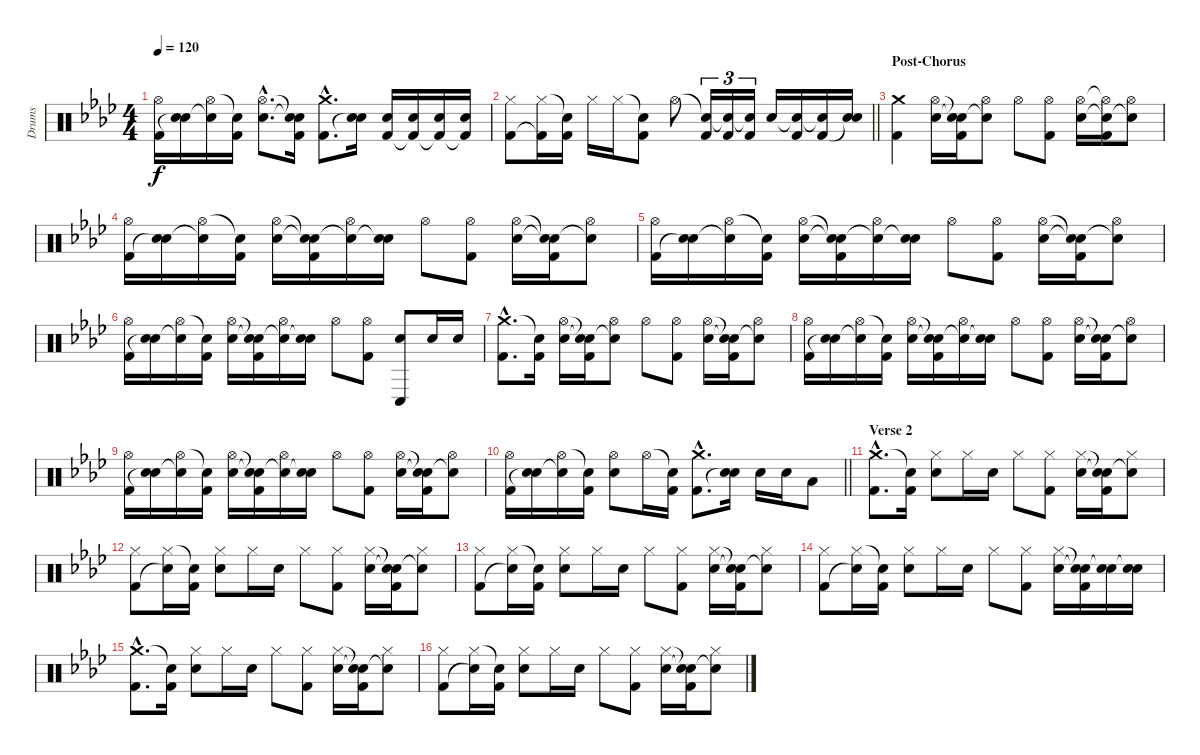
\track ("Drums" "Drums") {instrument percussion}
\staff {score}
\articulation defaults
\ts (4 4)
\tempo 120
\clef neutral
\ks fminor
("Hi-Hat (open)" "Kick (hit) 2").16{dy f} ("Electric Snare (hit)" "Snare (hit)"{t}).16 ("Hi-Hat (open)" "Snare (hit)"{t}).16 ("Snare (hit)"{t} "Kick (hit) 2").16 ("Hi-Hat (open)"{hac} "Electric Snare (hit)"{hac}).8{d} ("Snare (hit)"{t} "Snare (hit)"{t} "Kick (hit) 2").16 ("Crash medium (hit)"{hac} "Kick (hit) 2"{hac}).8{d} ("Electric Snare (hit)" "Snare (hit)"{t}).16 ("Electric Snare (hit)" "Kick (hit) 2").16 ("Electric Snare (hit)" "Kick (hit) 2"{t}).16 ("Electric Snare (hit)" "Kick (hit) 2"{t}).16 ("Electric Snare (hit)" "Kick (hit) 2"{t}).16 |
\barLineRight lightlight
("Hi-Hat (closed)" "Kick (hit) 2").8 ("Hi-Hat (closed)" "Kick (hit) 2"{t}).16 ("Snare (hit)"{t} "Kick (hit) 2").16 "Hi-Hat (closed)".16 "Hi-Hat (closed)".16 ("Snare (hit)"{t} "Kick (hit) 2").8 "Hi-Hat (open)".8 ("Snare (hit)"{t} "Kick (hit) 2").16{tu (3 2)} ("Snare (hit)"{t} "Kick (hit) 2").16{tu (3 2)} ("Snare (hit)"{t} "Kick (hit) 2").16{tu (3 2)} "Electric Snare (hit)".16 ("Snare (hit)"{t} "Kick (hit) 2").16 ("Snare (hit)"{t} "Kick (hit) 2").16 ("Electric Snare (hit)" "Snare (hit)"{t}).16 |
\section ("" "Post-Chorus")
("Crash medium (hit)" "Kick (hit) 2").4 ("Hi-Hat (open)" "Electric Snare (hit)").16 ("Snare (hit)"{t} "Snare (hit)"{t} "Kick (hit) 2").16 ("Hi-Hat (open)" "Snare (hit)"{t}).8 "Hi-Hat (open)".8 ("Hi-Hat (open)" "Kick (hit) 2").8 ("Hi-Hat (open)" "Electric Snare (hit)").16 ("Hi-Hat (open)"{t} "Snare (hit)"{t} "Kick (hit) 2").16 ("Hi-Hat (open)" "Snare (hit)"{t}).8 |
("Hi-Hat (open)" "Kick (hit) 2").16 ("Electric Snare (hit)" "Snare (hit)"{t}).16 ("Hi-Hat (open)" "Snare (hit)"{t}).16 ("Snare (hit)"{t} "Kick (hit) 2").16 ("Hi-Hat (open)" "Electric Snare (hit)").16 ("Snare (hit)"{t} "Snare (hit)"{t} "Kick (hit) 2").16 ("Hi-Hat (open)" "Snare (hit)"{t}).16 ("Electric Snare (hit)" "Snare (hit)"{t}).16 "Hi-Hat (open)".8 ("Hi-Hat (open)" "Kick (hit) 2").8 ("Hi-Hat (open)" "Electric Snare (hit)").16 ("Snare (hit)"{t} "Snare (hit)"{t} "Kick (hit) 2").16 ("Hi-Hat (open)" "Snare (hit)"{t}).8 |
("Hi-Hat (open)" "Kick (hit) 2").16 ("Electric Snare (hit)" "Snare (hit)"{t}).16 ("Hi-Hat (open)" "Snare (hit)"{t}).16 ("Snare (hit)"{t} "Kick (hit) 2").16 ("Hi-Hat (open)" "Electric Snare (hit)").16 ("Snare (hit)"{t} "Snare (hit)"{t} "Kick (hit) 2").16 ("Hi-Hat (open)" "Snare (hit)"{t}).16 ("Electric Snare (hit)" "Snare (hit)"{t}).16 "Hi-Hat (open)".8 ("Hi-Hat (open)" "Kick (hit) 2").8 ("Hi-Hat (open)" "Electric Snare (hit)").16 ("Snare (hit)"{t} "Snare (hit)"{t} "Kick (hit) 2").16 ("Hi-Hat (open)" "Snare (hit)"{t}).8 |
("Hi-Hat (open)" "Kick (hit) 2").16 ("Electric Snare (hit)" "Snare (hit)"{t}).16 ("Hi-Hat (open)" "Snare (hit)"{t}).16 ("Snare (hit)"{t} "Kick (hit) 2").16 ("Hi-Hat (open)" "Electric Snare (hit)").16 ("Snare (hit)"{t} "Snare (hit)"{t} "Kick (hit) 2").16 ("Hi-Hat (open)" "Snare (hit)"{t}).16 ("Electric Snare (hit)" "Snare (hit)"{t}).16 "Hi-Hat (open)".8 ("Hi-Hat (open)" "Kick (hit) 2").8 ("Conga low (hit)" "Electric Snare (hit)").8 "Electric Snare (hit)".16 "Electric Snare (hit)".16 |
("Crash medium (hit)"{hac} "Kick (hit) 2"{hac}).8{d} ("Snare (hit)"{t} "Kick (hit) 2").16 ("Hi-Hat (open)" "Electric Snare (hit)").16 ("Snare (hit)"{t} "Snare (hit)"{t} "Kick (hit) 2").16 ("Hi-Hat (open)" "Snare (hit)"{t}).8 "Hi-Hat (open)".8 ("Hi-Hat (open)" "Kick (hit) 2").8 ("Hi-Hat (open)" "Electric Snare (hit)").16 ("Snare (hit)"{t} "Snare (hit)"{t} "Kick (hit) 2").16 ("Hi-Hat (open)" "Snare (hit)"{t}).8 |
("Hi-Hat (open)" "Kick (hit) 2").16 ("Electric Snare (hit)" "Snare (hit)"{t}).16 ("Hi-Hat (open)" "Snare (hit)"{t}).16 ("Snare (hit)"{t} "Kick (hit) 2").16 ("Hi-Hat (open)" "Electric Snare (hit)").16 ("Snare (hit)"{t} "Snare (hit)"{t} "Kick (hit) 2").16 ("Hi-Hat (open)" "Snare (hit)"{t}).16 ("Electric Snare (hit)" "Snare (hit)"{t}).16 "Hi-Hat (open)".8 ("Hi-Hat (open)" "Kick (hit) 2").8 ("Hi-Hat (open)" "Electric Snare (hit)").16 ("Snare (hit)"{t} "Snare (hit)"{t} "Kick (hit) 2").16 ("Hi-Hat (open)" "Snare (hit)"{t}).8 |
("Hi-Hat (open)" "Kick (hit) 2").16 ("Electric Snare (hit)" "Snare (hit)"{t}).16 ("Hi-Hat (open)" "Snare (hit)"{t}).16 ("Snare (hit)"{t} "Kick (hit) 2").16 ("Hi-Hat (open)" "Electric Snare (hit)").16 ("Snare (hit)"{t} "Snare (hit)"{t} "Kick (hit) 2").16 ("Hi-Hat (open)" "Snare (hit)"{t}).16 ("Electric Snare (hit)" "Snare (hit)"{t}).16 "Hi-Hat (open)".8 ("Hi-Hat (open)" "Kick (hit) 2").8 ("Hi-Hat (open)" "Electric Snare (hit)").16 ("Snare (hit)"{t} "Snare (hit)"{t} "Kick (hit) 2").16 ("Hi-Hat (open)" "Snare (hit)"{t}).8 |
\barLineRight lightlight
("Hi-Hat (open)" "Kick (hit) 2").16 ("Electric Snare (hit)" "Snare (hit)"{t}).16 ("Hi-Hat (open)" "Snare (hit)"{t}).16 ("Snare (hit)"{t} "Kick (hit) 2").16 ("Hi-Hat (open)" "Electric Snare (hit)").8 "Hi-Hat (open)".16 ("Snare (hit)"{t} "Kick (hit) 2").16 ("Crash medium (hit)"{hac} "Kick (hit) 2"{hac}).8{d} ("Electric Snare (hit)" "Snare (hit)"{t}).16 "Electric Snare (hit)".16 "Electric Snare (hit)".16 "Low Floor Tom (hit)".8 |
\section ("" "Verse 2")
("Crash medium (hit)"{hac} "Kick (hit) 2"{hac}).8{d} ("Snare (hit)"{t} "Kick (hit) 2").16 ("Hi-Hat (closed)" "Electric Snare (hit)").8 "Hi-Hat (closed)".16 "Electric Snare (hit)".16 "Hi-Hat (closed)".8 ("Hi-Hat (closed)" "Kick (hit) 2").8 ("Hi-Hat (closed)" "Electric Snare (hit)").16 ("Snare (hit)"{t} "Snare (hit)"{t} "Kick (hit) 2").16 ("Hi-Hat (closed)" "Snare (hit)"{t}).8 |
("Hi-Hat (closed)" "Kick (hit) 2").8 ("Hi-Hat (closed)" "Snare (hit)"{t}).16 ("Snare (hit)"{t} "Kick (hit) 2").16 ("Hi-Hat (closed)" "Electric Snare (hit)").8 "Hi-Hat (closed)".16 "Electric Snare (hit)".16 "Hi-Hat (closed)".8 ("Hi-Hat (closed)" "Kick (hit) 2").8 ("Hi-Hat (closed)" "Electric Snare (hit)").16 ("Snare (hit)"{t} "Snare (hit)"{t} "Kick (hit) 2").16 ("Hi-Hat (closed)" "Snare (hit)"{t}).8 |
("Hi-Hat (closed)" "Kick (hit) 2").8 ("Hi-Hat (closed)" "Snare (hit)"{t}).16 ("Snare (hit)"{t} "Kick (hit) 2").16 ("Hi-Hat (closed)" "Electric Snare (hit)").8 "Hi-Hat (closed)".16 "Electric Snare (hit)".16 "Hi-Hat (closed)".8 ("Hi-Hat (closed)" "Kick (hit) 2").8 ("Hi-Hat (closed)" "Electric Snare (hit)").16 ("Snare (hit)"{t} "Snare (hit)"{t} "Kick (hit) 2").16 ("Hi-Hat (closed)" "Snare (hit)"{t}).8 |
("Hi-Hat (closed)" "Kick (hit) 2").8 ("Hi-Hat (closed)" "Snare (hit)"{t}).16 ("Snare (hit)"{t} "Kick (hit) 2").16 ("Hi-Hat (closed)" "Electric Snare (hit)").8 "Hi-Hat (closed)".16 "Electric Snare (hit)".16 "Hi-Hat (closed)".8 ("Hi-Hat (closed)" "Kick (hit) 2").8 ("Hi-Hat (closed)" "Electric Snare (hit)").16 ("Snare (hit)"{t} "Snare (hit)"{t} "Kick (hit) 2").16 ("Electric Snare (hit)" "Snare (hit)"{t}).16 ("Electric Snare (hit)" "Snare (hit)"{t}).16 |
("Crash medium (hit)"{hac} "Kick (hit) 2"{hac}).8{d} ("Snare (hit)"{t} "Kick (hit) 2").16 ("Hi-Hat (closed)" "Electric Snare (hit)").8 "Hi-Hat (closed)".16 "Electric Snare (hit)".16 "Hi-Hat (closed)".8 ("Hi-Hat (closed)" "Kick (hit) 2").8 ("Hi-Hat (closed)" "Electric Snare (hit)").16 ("Snare (hit)"{t} "Snare (hit)"{t} "Kick (hit) 2").16 ("Hi-Hat (closed)" "Snare (hit)"{t}).8 |
("Hi-Hat (closed)" "Kick (hit) 2").8 ("Hi-Hat (closed)" "Snare (hit)"{t}).16 ("Snare (hit)"{t} "Kick (hit) 2").16 ("Hi-Hat (closed)" "Electric Snare (hit)").8 "Hi-Hat (closed)".16 "Electric Snare (hit)".16 "Hi-Hat (closed)".8 ("Hi-Hat (closed)" "Kick (hit) 2").8 ("Hi-Hat (closed)" "Electric Snare (hit)").16 ("Snare (hit)"{t} "Snare (hit)"{t} "Kick (hit) 2").16 ("Hi-Hat (closed)" "Snare (hit)"{t}).8
